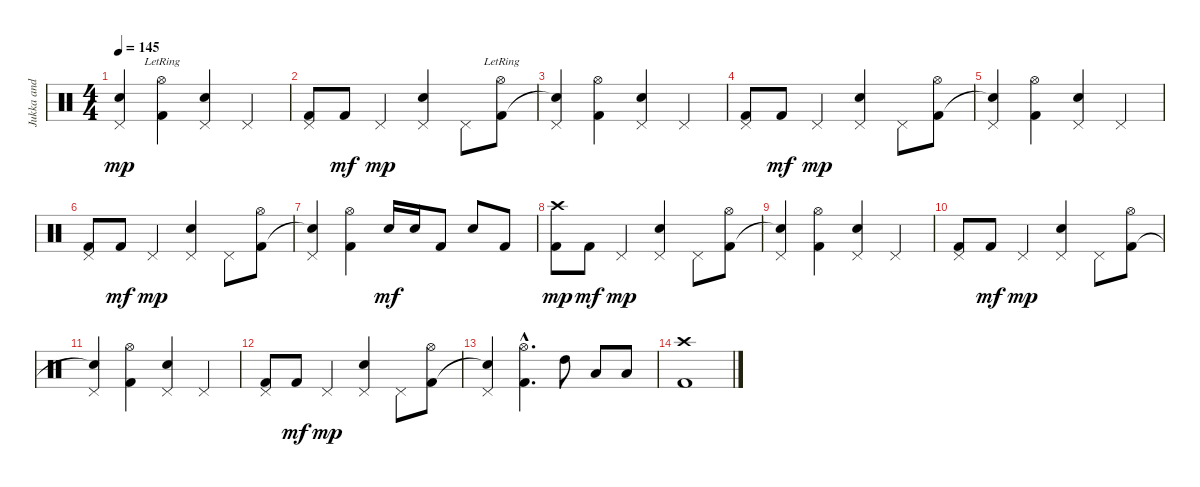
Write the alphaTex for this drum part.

\track ("Jukka and his drums" "Jukka and ") {instrument percussion}
\staff {score}
\articulation defaults
\ts (4 4)
\tempo 145
\clef neutral
\ks c
("Snare (hit)"{t} "Pedal Hi-Hat (hit)").4{dy mp} ("Kick (hit) 2" "Hi-Hat (open)"{lr}).4 ("Pedal Hi-Hat (hit)" "Snare (hit) 2").4 "Pedal Hi-Hat (hit)".4 |
("Kick (hit) 2" "Pedal Hi-Hat (hit)").8 "Kick (hit) 2".8{dy mf} "Pedal Hi-Hat (hit)".4{dy mp} ("Pedal Hi-Hat (hit)" "Snare (hit) 2").4 "Pedal Hi-Hat (hit)".8 ("Kick (hit) 2" "Hi-Hat (open)"{lr}).8 |
("Snare (hit)"{t} "Pedal Hi-Hat (hit)").4 ("Kick (hit) 2" "Hi-Hat (open)").4 ("Pedal Hi-Hat (hit)" "Snare (hit) 2").4 "Pedal Hi-Hat (hit)".4 |
("Kick (hit) 2" "Pedal Hi-Hat (hit)").8 "Kick (hit) 2".8{dy mf} "Pedal Hi-Hat (hit)".4{dy mp} ("Pedal Hi-Hat (hit)" "Snare (hit) 2").4 "Pedal Hi-Hat (hit)".8 ("Kick (hit) 2" "Hi-Hat (open)").8 |
("Snare (hit)"{t} "Pedal Hi-Hat (hit)").4 ("Kick (hit) 2" "Hi-Hat (open)").4 ("Pedal Hi-Hat (hit)" "Snare (hit) 2").4 "Pedal Hi-Hat (hit)".4 |
("Kick (hit) 2" "Pedal Hi-Hat (hit)").8 "Kick (hit) 2".8{dy mf} "Pedal Hi-Hat (hit)".4{dy mp} ("Pedal Hi-Hat (hit)" "Snare (hit) 2").4 "Pedal Hi-Hat (hit)".8 ("Kick (hit) 2" "Hi-Hat (open)").8 |
("Snare (hit)"{t} "Pedal Hi-Hat (hit)").4 ("Kick (hit) 2" "Hi-Hat (open)").4 "Snare (hit) 2".16{dy mf} "Snare (hit) 2".16 "Kick (hit) 2".8 "Snare (hit) 2".8 "Kick (hit) 2".8 |
("Kick (hit) 2" "Crash high (hit)").8{dy mp} "Kick (hit) 2".8{dy mf} "Pedal Hi-Hat (hit)".4{dy mp} ("Pedal Hi-Hat (hit)" "Snare (hit) 2").4 "Pedal Hi-Hat (hit)".8 ("Kick (hit) 2" "Hi-Hat (open)").8 |
("Snare (hit)"{t} "Pedal Hi-Hat (hit)").4 ("Kick (hit) 2" "Hi-Hat (open)").4 ("Pedal Hi-Hat (hit)" "Snare (hit) 2").4 "Pedal Hi-Hat (hit)".4 |
("Kick (hit) 2" "Pedal Hi-Hat (hit)").8 "Kick (hit) 2".8{dy mf} "Pedal Hi-Hat (hit)".4{dy mp} ("Pedal Hi-Hat (hit)" "Snare (hit) 2").4 "Pedal Hi-Hat (hit)".8 ("Kick (hit) 2" "Hi-Hat (open)").8 |
("Snare (hit)"{t} "Pedal Hi-Hat (hit)").4 ("Kick (hit) 2" "Hi-Hat (open)").4 ("Pedal Hi-Hat (hit)" "Snare (hit) 2").4 "Pedal Hi-Hat (hit)".4 |
("Kick (hit) 2" "Pedal Hi-Hat (hit)").8 "Kick (hit) 2".8{dy mf} "Pedal Hi-Hat (hit)".4{dy mp} ("Pedal Hi-Hat (hit)" "Snare (hit) 2").4 "Pedal Hi-Hat (hit)".8 ("Kick (hit) 2" "Hi-Hat (open)").8 |
("Snare (hit)"{t} "Pedal Hi-Hat (hit)").4 ("Kick (hit) 2"{hac} "Hi-Hat (open)"{hac}).4{d} "High Tom (hit)".8 "Low Tom (hit)".8 "Low Floor Tom (hit)".8 |
("Kick (hit) 2" "Crash high (hit)").1
